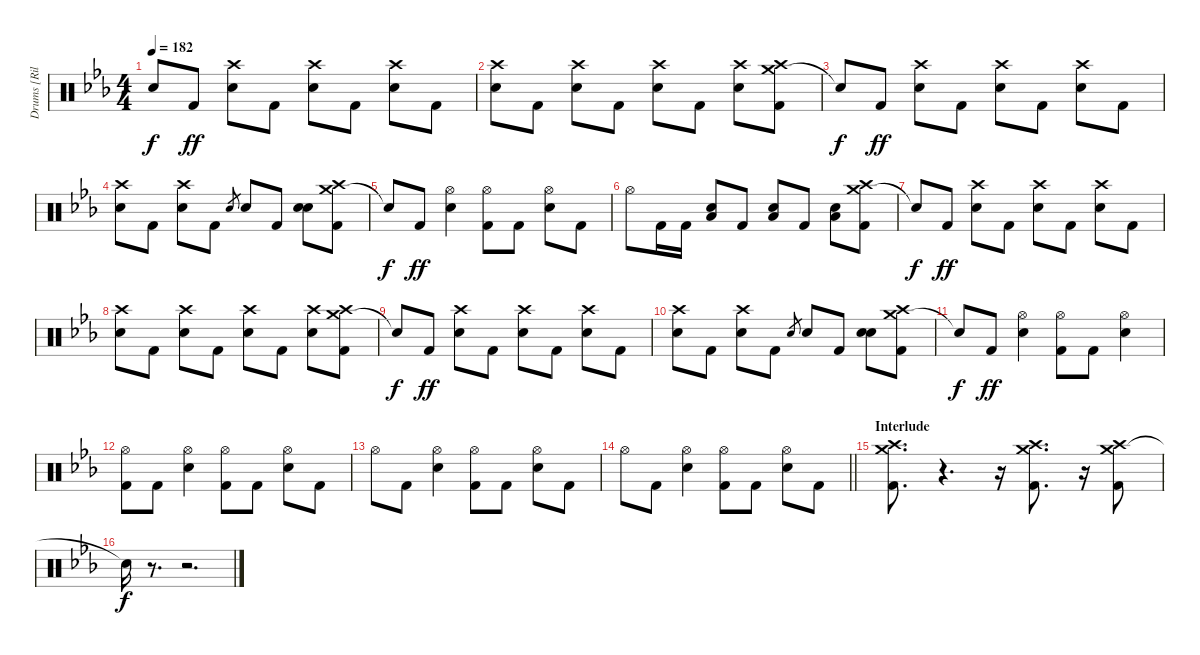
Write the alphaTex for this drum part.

\track ("Drums [Riley]" "Drums [Ril") {instrument percussion}
\staff {score}
\articulation defaults
\ts (4 4)
\tempo 182
\clef neutral
\ks eb "Snare (hit)"{t}.8{dy f} "Kick (hit) 2".8{dy ff}
("Crash high (hit)" "Electric Snare (hit)").8 "Kick (hit) 2".8 ("Crash high (hit)" "Electric Snare (hit)").8 "Kick (hit) 2".8 ("Crash high (hit)" "Electric Snare (hit)").8 "Kick (hit) 2".8 |
("Crash high (hit)" "Electric Snare (hit)").8 "Kick (hit) 2".8 ("Crash high (hit)" "Electric Snare (hit)").8 "Kick (hit) 2".8 ("Crash high (hit)" "Electric Snare (hit)").8 "Kick (hit) 2".8 ("Crash high (hit)" "Electric Snare (hit)").8 ("Crash medium (hit)" "Crash high (hit)" "Kick (hit) 2").8 |
"Snare (hit)"{t}.8{dy f} "Kick (hit) 2".8{dy ff} ("Crash high (hit)" "Electric Snare (hit)").8 "Kick (hit) 2".8 ("Crash high (hit)" "Electric Snare (hit)").8 "Kick (hit) 2".8 ("Crash high (hit)" "Electric Snare (hit)").8 "Kick (hit) 2".8 |
("Crash high (hit)" "Electric Snare (hit)").8 "Kick (hit) 2".8 ("Crash high (hit)" "Electric Snare (hit)").8 "Kick (hit) 2".8 "Electric Snare (hit)".8{gr} "Electric Snare (hit)".8 "Kick (hit) 2".8 ("Electric Snare (hit)" "Electric Snare (hit)").8{bu 60} ("Crash medium (hit)" "Crash high (hit)" "Kick (hit) 2").8 |
"Snare (hit)"{t}.8{dy f} "Kick (hit) 2".8{dy ff} ("Hi-Hat (open)" "Electric Snare (hit)").4 ("Hi-Hat (open)" "Kick (hit) 2").8 "Kick (hit) 2".8 ("Hi-Hat (open)" "Electric Snare (hit)").8 "Kick (hit) 2".8 |
"Hi-Hat (open)".8 "Kick (hit) 2".16 "Kick (hit) 2".16 ("Low Tom (hit)" "Electric Snare (hit)").8{bu 60} "Kick (hit) 2".8 ("Low Tom (hit)" "Electric Snare (hit)").8{bu 60} "Kick (hit) 2".8 ("Low Tom (hit)" "Electric Snare (hit)").8{bu 60} ("Crash medium (hit)" "Crash high (hit)" "Kick (hit) 2").8 |
"Snare (hit)"{t}.8{dy f} "Kick (hit) 2".8{dy ff} ("Crash high (hit)" "Electric Snare (hit)").8 "Kick (hit) 2".8 ("Crash high (hit)" "Electric Snare (hit)").8 "Kick (hit) 2".8 ("Crash high (hit)" "Electric Snare (hit)").8 "Kick (hit) 2".8 |
("Crash high (hit)" "Electric Snare (hit)").8 "Kick (hit) 2".8 ("Crash high (hit)" "Electric Snare (hit)").8 "Kick (hit) 2".8 ("Crash high (hit)" "Electric Snare (hit)").8 "Kick (hit) 2".8 ("Crash high (hit)" "Electric Snare (hit)").8 ("Crash medium (hit)" "Crash high (hit)" "Kick (hit) 2").8 |
"Snare (hit)"{t}.8{dy f} "Kick (hit) 2".8{dy ff} ("Crash high (hit)" "Electric Snare (hit)").8 "Kick (hit) 2".8 ("Crash high (hit)" "Electric Snare (hit)").8 "Kick (hit) 2".8 ("Crash high (hit)" "Electric Snare (hit)").8 "Kick (hit) 2".8 |
("Crash high (hit)" "Electric Snare (hit)").8 "Kick (hit) 2".8 ("Crash high (hit)" "Electric Snare (hit)").8 "Kick (hit) 2".8 "Electric Snare (hit)".8{gr} "Electric Snare (hit)".8 "Kick (hit) 2".8 ("Electric Snare (hit)" "Electric Snare (hit)").8{bu 60} ("Crash medium (hit)" "Crash high (hit)" "Kick (hit) 2").8 |
"Snare (hit)"{t}.8{dy f} "Kick (hit) 2".8{dy ff} ("Hi-Hat (open)" "Electric Snare (hit)").4 ("Hi-Hat (open)" "Kick (hit) 2").8 "Kick (hit) 2".8 ("Hi-Hat (open)" "Electric Snare (hit)").4 |
("Hi-Hat (open)" "Kick (hit) 2").8 "Kick (hit) 2".8 ("Hi-Hat (open)" "Electric Snare (hit)").4 ("Hi-Hat (open)" "Kick (hit) 2").8 "Kick (hit) 2".8 ("Hi-Hat (open)" "Electric Snare (hit)").8 "Kick (hit) 2".8 |
"Hi-Hat (open)".8 "Kick (hit) 2".8 ("Hi-Hat (open)" "Electric Snare (hit)").4 ("Hi-Hat (open)" "Kick (hit) 2").8 "Kick (hit) 2".8 ("Hi-Hat (open)" "Electric Snare (hit)").8 "Kick (hit) 2".8 |
\barLineRight lightlight "Hi-Hat (open)".8 "Kick (hit) 2".8
("Hi-Hat (open)" "Electric Snare (hit)").4 ("Hi-Hat (open)" "Kick (hit) 2").8 "Kick (hit) 2".8 ("Hi-Hat (open)" "Electric Snare (hit)").8 "Kick (hit) 2".8 |
\section ("" "Interlude")
("Crash medium (hit)" "Crash high (hit)" "Kick (hit) 2").8{d} r.4{d volume 0} r.16 ("Crash medium (hit)" "Crash high (hit)" "Kick (hit) 2").8{d volume 14} r.16{volume 0} ("Crash medium (hit)" "Crash high (hit)" "Kick (hit) 2").8{volume 14} |
"Snare (hit)"{t}.16{dy f} r.8{d volume 0} r.2{d}
